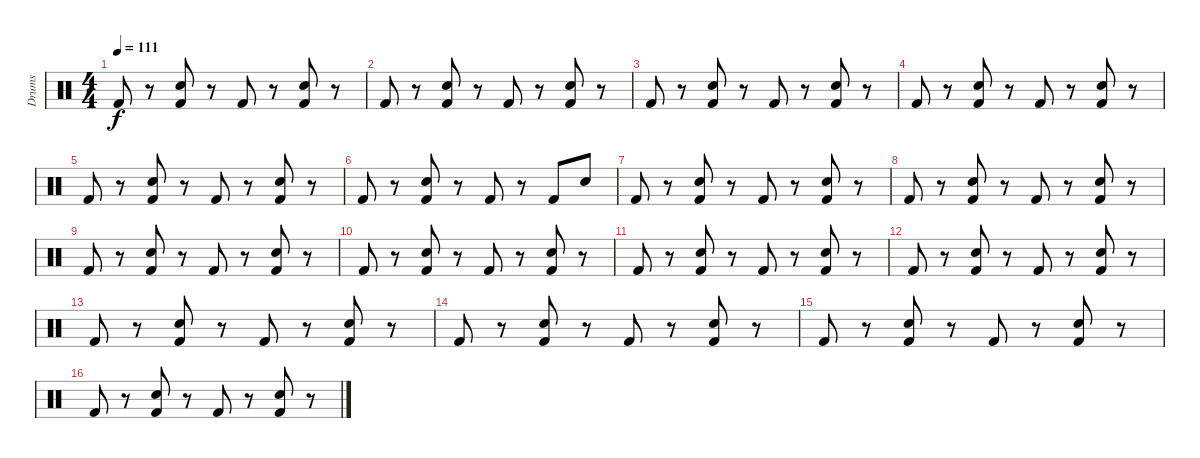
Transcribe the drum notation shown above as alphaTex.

\track ("Drums" "Drums") {instrument percussion}
\staff {score}
\articulation defaults
\ts (4 4)
\tempo 111
\clef neutral
\ks c "Kick (hit) 2".8{dy f}
r.8 ("Kick (hit) 2" "Electric Snare (hit)").8 r.8 "Kick (hit) 2".8 r.8 ("Kick (hit) 2" "Electric Snare (hit)").8 r.8 |
"Kick (hit) 2".8 r.8 ("Kick (hit) 2" "Electric Snare (hit)").8 r.8 "Kick (hit) 2".8 r.8 ("Kick (hit) 2" "Electric Snare (hit)").8 r.8 |
"Kick (hit) 2".8 r.8 ("Kick (hit) 2" "Electric Snare (hit)").8 r.8 "Kick (hit) 2".8 r.8 ("Kick (hit) 2" "Electric Snare (hit)").8 r.8 |
"Kick (hit) 2".8 r.8 ("Kick (hit) 2" "Electric Snare (hit)").8 r.8 "Kick (hit) 2".8 r.8 ("Kick (hit) 2" "Electric Snare (hit)").8 r.8 |
"Kick (hit) 2".8 r.8 ("Kick (hit) 2" "Electric Snare (hit)").8 r.8 "Kick (hit) 2".8 r.8 ("Kick (hit) 2" "Electric Snare (hit)").8 r.8 |
"Kick (hit) 2".8 r.8 ("Kick (hit) 2" "Electric Snare (hit)").8 r.8 "Kick (hit) 2".8 r.8 "Kick (hit) 2".8 "Electric Snare (hit)".8 |
"Kick (hit) 2".8 r.8 ("Kick (hit) 2" "Electric Snare (hit)").8 r.8 "Kick (hit) 2".8 r.8 ("Kick (hit) 2" "Electric Snare (hit)").8 r.8 |
"Kick (hit) 2".8 r.8 ("Kick (hit) 2" "Electric Snare (hit)").8 r.8 "Kick (hit) 2".8 r.8 ("Kick (hit) 2" "Electric Snare (hit)").8 r.8 |
"Kick (hit) 2".8 r.8 ("Kick (hit) 2" "Electric Snare (hit)").8 r.8 "Kick (hit) 2".8 r.8 ("Kick (hit) 2" "Electric Snare (hit)").8 r.8 |
"Kick (hit) 2".8 r.8 ("Kick (hit) 2" "Electric Snare (hit)").8 r.8 "Kick (hit) 2".8 r.8 ("Kick (hit) 2" "Electric Snare (hit)").8 r.8 |
"Kick (hit) 2".8 r.8 ("Kick (hit) 2" "Electric Snare (hit)").8 r.8 "Kick (hit) 2".8 r.8 ("Kick (hit) 2" "Electric Snare (hit)").8 r.8 |
"Kick (hit) 2".8 r.8 ("Kick (hit) 2" "Electric Snare (hit)").8 r.8 "Kick (hit) 2".8 r.8 ("Kick (hit) 2" "Electric Snare (hit)").8 r.8 |
"Kick (hit) 2".8 r.8 ("Kick (hit) 2" "Electric Snare (hit)").8 r.8 "Kick (hit) 2".8 r.8 ("Kick (hit) 2" "Electric Snare (hit)").8 r.8 |
"Kick (hit) 2".8 r.8 ("Kick (hit) 2" "Electric Snare (hit)").8 r.8 "Kick (hit) 2".8 r.8 ("Kick (hit) 2" "Electric Snare (hit)").8 r.8 |
"Kick (hit) 2".8 r.8 ("Kick (hit) 2" "Electric Snare (hit)").8 r.8 "Kick (hit) 2".8 r.8 ("Kick (hit) 2" "Electric Snare (hit)").8 r.8 |
"Kick (hit) 2".8 r.8 ("Kick (hit) 2" "Electric Snare (hit)").8 r.8 "Kick (hit) 2".8 r.8 ("Kick (hit) 2" "Electric Snare (hit)").8 r.8
